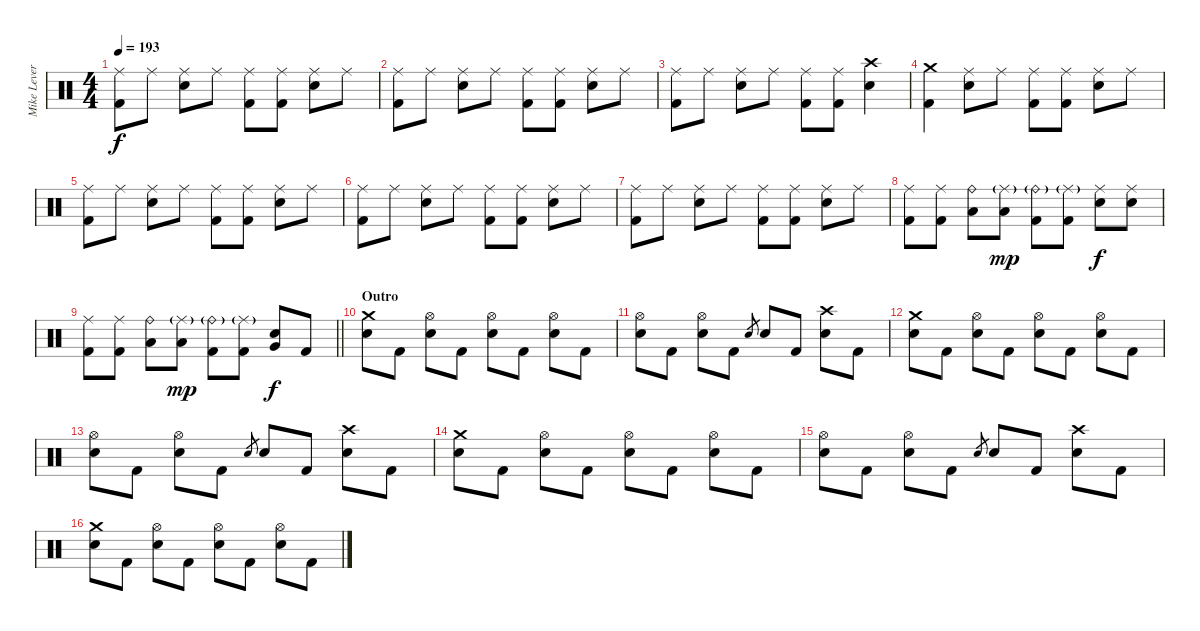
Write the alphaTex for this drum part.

\track ("Mike Leverence - Drums" "Mike Lever") {instrument percussion}
\staff {score}
\articulation defaults
\ts (4 4)
\tempo 193
\clef neutral
\ks c
("Ride (middle)" "Kick (hit) 2").8{dy f} "Ride (middle)".8 ("Ride (middle)" "Electric Snare (hit)").8 "Ride (middle)".8 ("Ride (middle)" "Kick (hit) 2").8 ("Ride (middle)" "Kick (hit) 2").8 ("Ride (middle)" "Electric Snare (hit)").8 "Ride (middle)".8 |
("Ride (middle)" "Kick (hit) 2").8 "Ride (middle)".8 ("Ride (middle)" "Electric Snare (hit)").8 "Ride (middle)".8 ("Ride (middle)" "Kick (hit) 2").8 ("Ride (middle)" "Kick (hit) 2").8 ("Ride (middle)" "Electric Snare (hit)").8 "Ride (middle)".8 |
("Ride (middle)" "Kick (hit) 2").8 "Ride (middle)".8 ("Ride (middle)" "Electric Snare (hit)").8 "Ride (middle)".8 ("Ride (middle)" "Kick (hit) 2").8 ("Ride (middle)" "Kick (hit) 2").8 ("Crash high (hit)" "Electric Snare (hit)").4 |
("Crash medium (hit)" "Kick (hit) 2").4 ("Ride (middle)" "Electric Snare (hit)").8 "Ride (middle)".8 ("Ride (middle)" "Kick (hit) 2").8 ("Ride (middle)" "Kick (hit) 2").8 ("Ride (middle)" "Electric Snare (hit)").8 "Ride (middle)".8 |
("Ride (middle)" "Kick (hit) 2").8 "Ride (middle)".8 ("Ride (middle)" "Electric Snare (hit)").8 "Ride (middle)".8 ("Ride (middle)" "Kick (hit) 2").8 ("Ride (middle)" "Kick (hit) 2").8 ("Ride (middle)" "Electric Snare (hit)").8 "Ride (middle)".8 |
("Ride (middle)" "Kick (hit) 2").8 "Ride (middle)".8 ("Ride (middle)" "Electric Snare (hit)").8 "Ride (middle)".8 ("Ride (middle)" "Kick (hit) 2").8 ("Ride (middle)" "Kick (hit) 2").8 ("Ride (middle)" "Electric Snare (hit)").8 "Ride (middle)".8 |
("Ride (middle)" "Kick (hit) 2").8 "Ride (middle)".8 ("Ride (middle)" "Electric Snare (hit)").8 "Ride (middle)".8 ("Ride (middle)" "Kick (hit) 2").8 ("Ride (middle)" "Kick (hit) 2").8 ("Ride (middle)" "Electric Snare (hit)").8 "Ride (middle)".8 |
("Ride (middle)" "Kick (hit) 2").8 ("Ride (middle)" "Kick (hit) 2").8 ("Ride (bell)" "Low Tom (hit)").8 ("Ride (middle)"{g} "Low Tom (hit)").8{dy mp} ("Ride (bell)"{g} "Kick (hit) 2").8 ("Ride (middle)"{g} "Kick (hit) 2").8 ("Ride (middle)" "Electric Snare (hit)").8{dy f} ("Ride (middle)" "Electric Snare (hit)").8 |
\barLineRight lightlight
("Ride (middle)" "Kick (hit) 2").8 ("Ride (middle)" "Kick (hit) 2").8 ("Ride (bell)" "Low Tom (hit)").8 ("Ride (middle)"{g} "Low Tom (hit)").8{dy mp} ("Ride (bell)"{g} "Kick (hit) 2").8 ("Ride (middle)"{g} "Kick (hit) 2").8 ("Very Low Tom (hit)" "Electric Snare (hit)").8{dy f} "Kick (hit) 2".8 |
\section ("" "Outro")
("Crash medium (hit)" "Electric Snare (hit)").8 "Kick (hit) 2".8 ("Hi-Hat (open)" "Electric Snare (hit)").8 "Kick (hit) 2".8 ("Hi-Hat (open)" "Electric Snare (hit)").8 "Kick (hit) 2".8 ("Hi-Hat (open)" "Electric Snare (hit)").8 "Kick (hit) 2".8 |
("Hi-Hat (open)" "Electric Snare (hit)").8 "Kick (hit) 2".8 ("Hi-Hat (open)" "Electric Snare (hit)").8 "Kick (hit) 2".8 "Electric Snare (hit)".8{gr} "Electric Snare (hit)".8 "Kick (hit) 2".8 ("Crash high (hit)" "Electric Snare (hit)").8 "Kick (hit) 2".8 |
("Crash medium (hit)" "Electric Snare (hit)").8 "Kick (hit) 2".8 ("Hi-Hat (open)" "Electric Snare (hit)").8 "Kick (hit) 2".8 ("Hi-Hat (open)" "Electric Snare (hit)").8 "Kick (hit) 2".8 ("Hi-Hat (open)" "Electric Snare (hit)").8 "Kick (hit) 2".8 |
("Hi-Hat (open)" "Electric Snare (hit)").8 "Kick (hit) 2".8 ("Hi-Hat (open)" "Electric Snare (hit)").8 "Kick (hit) 2".8 "Electric Snare (hit)".8{gr} "Electric Snare (hit)".8 "Kick (hit) 2".8 ("Crash high (hit)" "Electric Snare (hit)").8 "Kick (hit) 2".8 |
("Crash medium (hit)" "Electric Snare (hit)").8 "Kick (hit) 2".8 ("Hi-Hat (open)" "Electric Snare (hit)").8 "Kick (hit) 2".8 ("Hi-Hat (open)" "Electric Snare (hit)").8 "Kick (hit) 2".8 ("Hi-Hat (open)" "Electric Snare (hit)").8 "Kick (hit) 2".8 |
("Hi-Hat (open)" "Electric Snare (hit)").8 "Kick (hit) 2".8 ("Hi-Hat (open)" "Electric Snare (hit)").8 "Kick (hit) 2".8 "Electric Snare (hit)".8{gr} "Electric Snare (hit)".8 "Kick (hit) 2".8 ("Crash high (hit)" "Electric Snare (hit)").8 "Kick (hit) 2".8 |
("Crash medium (hit)" "Electric Snare (hit)").8 "Kick (hit) 2".8 ("Hi-Hat (open)" "Electric Snare (hit)").8 "Kick (hit) 2".8 ("Hi-Hat (open)" "Electric Snare (hit)").8 "Kick (hit) 2".8 ("Hi-Hat (open)" "Electric Snare (hit)").8 "Kick (hit) 2".8
